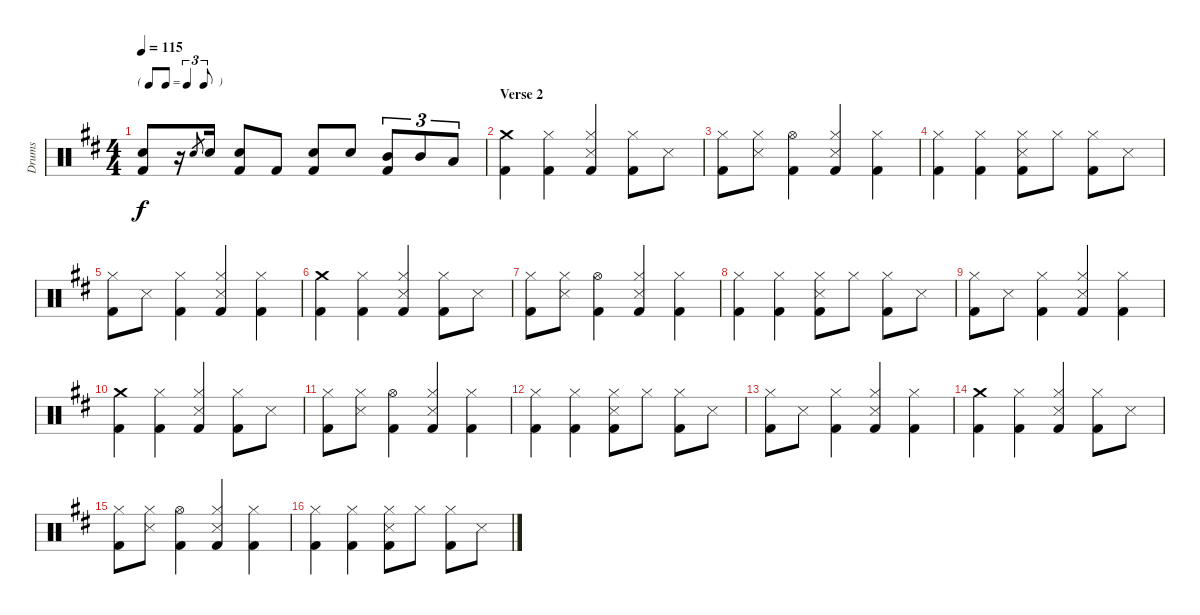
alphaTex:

\track ("Drums" "Drums") {instrument percussion}
\staff {score}
\articulation defaults
\ts (4 4)
\tf triplet8th
\tempo 115
\clef neutral
\ks d
("Snare (hit) 2" "Kick (hit) 2").8{dy f} r.16 "Snare (hit) 2".8{gr} "Snare (hit) 2".16 ("Snare (hit) 2" "Kick (hit) 2").8 "Kick (hit) 2".8 ("Snare (hit) 2" "Kick (hit) 2").8 "Snare (hit) 2".8 ("Mid Tom (hit)" "Kick (hit) 2").8{tu (3 2)} "Mid Tom (hit)".8{tu (3 2)} "Low Tom (hit)".8{tu (3 2)} |
\section ("" "Verse 2")
("Crash medium (hit)" "Kick (hit) 2").4 ("Hi-Hat (closed)" "Kick (hit) 2").4 ("Hi-Hat (closed)" "Snare (side stick) 3" "Kick (hit) 2").4 ("Hi-Hat (closed)" "Kick (hit) 2").8 "Snare (side stick) 3".8 |
("Hi-Hat (closed)" "Kick (hit) 2").8 ("Hi-Hat (closed)" "Snare (side stick) 3").8 ("Hi-Hat (open)" "Kick (hit) 2").4 ("Hi-Hat (closed)" "Snare (side stick) 3" "Kick (hit) 2").4 ("Hi-Hat (closed)" "Kick (hit) 2").4 |
("Hi-Hat (closed)" "Kick (hit) 2").4 ("Hi-Hat (closed)" "Kick (hit) 2").4 ("Hi-Hat (closed)" "Snare (side stick) 3" "Kick (hit) 2").8 "Hi-Hat (closed)".8 ("Hi-Hat (closed)" "Kick (hit) 2").8 "Snare (side stick) 3".8 |
("Hi-Hat (closed)" "Kick (hit) 2").8 "Snare (side stick) 3".8 ("Hi-Hat (closed)" "Kick (hit) 2").4 ("Hi-Hat (closed)" "Snare (side stick) 3" "Kick (hit) 2").4 ("Hi-Hat (closed)" "Kick (hit) 2").4 |
("Crash medium (hit)" "Kick (hit) 2").4 ("Hi-Hat (closed)" "Kick (hit) 2").4 ("Hi-Hat (closed)" "Snare (side stick) 3" "Kick (hit) 2").4 ("Hi-Hat (closed)" "Kick (hit) 2").8 "Snare (side stick) 3".8 |
("Hi-Hat (closed)" "Kick (hit) 2").8 ("Hi-Hat (closed)" "Snare (side stick) 3").8 ("Hi-Hat (open)" "Kick (hit) 2").4 ("Hi-Hat (closed)" "Snare (side stick) 3" "Kick (hit) 2").4 ("Hi-Hat (closed)" "Kick (hit) 2").4 |
("Hi-Hat (closed)" "Kick (hit) 2").4 ("Hi-Hat (closed)" "Kick (hit) 2").4 ("Hi-Hat (closed)" "Snare (side stick) 3" "Kick (hit) 2").8 "Hi-Hat (closed)".8 ("Hi-Hat (closed)" "Kick (hit) 2").8 "Snare (side stick) 3".8 |
("Hi-Hat (closed)" "Kick (hit) 2").8 "Snare (side stick) 3".8 ("Hi-Hat (closed)" "Kick (hit) 2").4 ("Hi-Hat (closed)" "Snare (side stick) 3" "Kick (hit) 2").4 ("Hi-Hat (closed)" "Kick (hit) 2").4 |
("Crash medium (hit)" "Kick (hit) 2").4 ("Hi-Hat (closed)" "Kick (hit) 2").4 ("Hi-Hat (closed)" "Snare (side stick) 3" "Kick (hit) 2").4 ("Hi-Hat (closed)" "Kick (hit) 2").8 "Snare (side stick) 3".8 |
("Hi-Hat (closed)" "Kick (hit) 2").8 ("Hi-Hat (closed)" "Snare (side stick) 3").8 ("Hi-Hat (open)" "Kick (hit) 2").4 ("Hi-Hat (closed)" "Snare (side stick) 3" "Kick (hit) 2").4 ("Hi-Hat (closed)" "Kick (hit) 2").4 |
("Hi-Hat (closed)" "Kick (hit) 2").4 ("Hi-Hat (closed)" "Kick (hit) 2").4 ("Hi-Hat (closed)" "Snare (side stick) 3" "Kick (hit) 2").8 "Hi-Hat (closed)".8 ("Hi-Hat (closed)" "Kick (hit) 2").8 "Snare (side stick) 3".8 |
("Hi-Hat (closed)" "Kick (hit) 2").8 "Snare (side stick) 3".8 ("Hi-Hat (closed)" "Kick (hit) 2").4 ("Hi-Hat (closed)" "Snare (side stick) 3" "Kick (hit) 2").4 ("Hi-Hat (closed)" "Kick (hit) 2").4 |
("Crash medium (hit)" "Kick (hit) 2").4 ("Hi-Hat (closed)" "Kick (hit) 2").4 ("Hi-Hat (closed)" "Snare (side stick) 3" "Kick (hit) 2").4 ("Hi-Hat (closed)" "Kick (hit) 2").8 "Snare (side stick) 3".8 |
("Hi-Hat (closed)" "Kick (hit) 2").8 ("Hi-Hat (closed)" "Snare (side stick) 3").8 ("Hi-Hat (open)" "Kick (hit) 2").4 ("Hi-Hat (closed)" "Snare (side stick) 3" "Kick (hit) 2").4 ("Hi-Hat (closed)" "Kick (hit) 2").4 |
("Hi-Hat (closed)" "Kick (hit) 2").4 ("Hi-Hat (closed)" "Kick (hit) 2").4 ("Hi-Hat (closed)" "Snare (side stick) 3" "Kick (hit) 2").8 "Hi-Hat (closed)".8 ("Hi-Hat (closed)" "Kick (hit) 2").8 "Snare (side stick) 3".8
